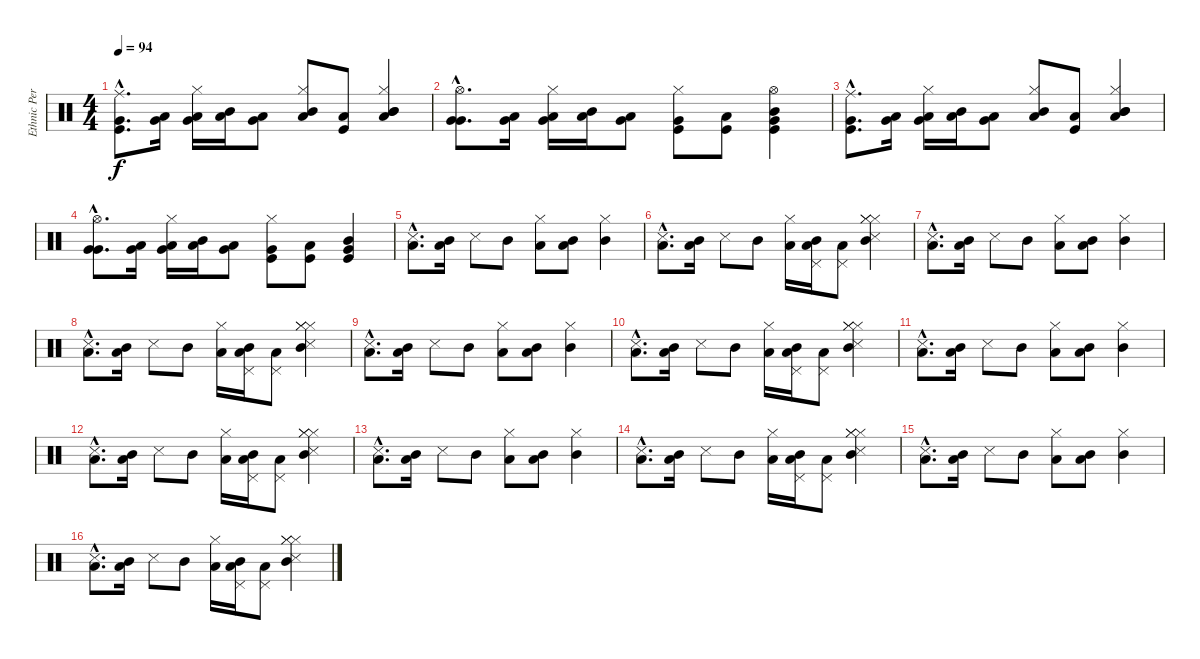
\track ("Ethnic Percussion" "Ethnic Per") {instrument percussion}
\staff {score}
\articulation defaults
\ts (4 4)
\tempo 94
\clef neutral
\ks c
("Ride (middle)"{hac} "Very Low Tom (hit)"{hac} "Kick (hit)"{hac}).8{d dy f} ("Low Floor Tom (hit)" "Very Low Tom (hit)").16 ("Very Low Tom (hit)" "Low Tom (hit)" "Hi-Hat (closed)").16 ("Mid Tom (hit)" "Low Tom (hit)").16 ("Very Low Tom (hit)" "Low Tom (hit)").8 ("Mid Tom (hit)" "Low Tom (hit)" "Hi-Hat (closed)").8 ("Low Tom (hit)" "Kick (hit)").8 ("Mid Tom (hit)" "Low Floor Tom (hit)" "Mid Tom (hit)" "Hi-Hat (closed)").4 |
("Hi-Hat (open)"{hac} "Very Low Tom (hit)"{hac} "Very Low Tom (hit)"{hac}).8{d} ("Low Tom (hit)" "Very Low Tom (hit)").16 ("Very Low Tom (hit)" "Low Tom (hit)" "Hi-Hat (closed)").16 ("Mid Tom (hit)" "Low Tom (hit)").16 ("Very Low Tom (hit)" "Low Tom (hit)").8 ("Kick (hit)" "Very Low Tom (hit)" "Hi-Hat (closed)").8 ("Low Tom (hit)" "Kick (hit)").8 ("Very Low Tom (hit)" "Kick (hit)" "Hi-Hat (open)" "Mid Tom (hit)").4 |
("Ride (middle)"{hac} "Very Low Tom (hit)"{hac} "Kick (hit)"{hac}).8{d} ("Low Floor Tom (hit)" "Very Low Tom (hit)").16 ("Very Low Tom (hit)" "Low Tom (hit)" "Hi-Hat (closed)").16 ("Mid Tom (hit)" "Low Tom (hit)").16 ("Very Low Tom (hit)" "Low Tom (hit)").8 ("Mid Tom (hit)" "Low Tom (hit)" "Hi-Hat (closed)").8 ("Low Tom (hit)" "Kick (hit)").8 ("Mid Tom (hit)" "Low Floor Tom (hit)" "Mid Tom (hit)" "Hi-Hat (closed)").4 |
("Hi-Hat (open)"{hac} "Very Low Tom (hit)"{hac} "Very Low Tom (hit)"{hac}).8{d} ("Low Tom (hit)" "Very Low Tom (hit)").16 ("Very Low Tom (hit)" "Low Tom (hit)" "Hi-Hat (closed)").16 ("Mid Tom (hit)" "Low Tom (hit)").16 ("Very Low Tom (hit)" "Low Tom (hit)").8 ("Kick (hit)" "Very Low Tom (hit)" "Hi-Hat (closed)").8 ("Low Tom (hit)" "Kick (hit)").8 ("Very Low Tom (hit)" "Kick (hit)" "Mid Tom (hit)").4 |
("Low Tom (hit)"{hac} "Snare (side stick) 3"{hac}).8{d} ("Low Tom (hit)" "Mid Tom (hit)").16 "Snare (side stick) 3".8 "Mid Tom (hit)".8 ("Low Tom (hit)" "Hi-Hat (closed)").8 ("Low Tom (hit)" "Mid Tom (hit)").8 ("Mid Tom (hit)" "Hi-Hat (closed)").4 |
("Low Tom (hit)"{hac} "Snare (side stick) 3"{hac}).8{d} ("Low Tom (hit)" "Mid Tom (hit)").16 "Snare (side stick) 3".8 "Mid Tom (hit)".8 ("Low Tom (hit)" "Hi-Hat (closed)").16 ("Low Tom (hit)" "Pedal Hi-Hat (hit)" "Mid Tom (hit)").16 ("Low Tom (hit)" "Pedal Hi-Hat (hit)").8 ("Snare (side stick) 3" "Mid Tom (hit)" "Hi-Hat (closed)" "Hi-Hat (closed)" "Hi-Hat (closed)").4 |
("Low Tom (hit)"{hac} "Snare (side stick) 3"{hac}).8{d} ("Low Tom (hit)" "Mid Tom (hit)").16 "Snare (side stick) 3".8 "Mid Tom (hit)".8 ("Low Tom (hit)" "Hi-Hat (closed)").8 ("Low Tom (hit)" "Mid Tom (hit)").8 ("Mid Tom (hit)" "Hi-Hat (closed)").4 |
("Low Tom (hit)"{hac} "Snare (side stick) 3"{hac}).8{d} ("Low Tom (hit)" "Mid Tom (hit)").16 "Snare (side stick) 3".8 "Mid Tom (hit)".8 ("Low Tom (hit)" "Hi-Hat (closed)").16 ("Low Tom (hit)" "Pedal Hi-Hat (hit)" "Mid Tom (hit)").16 ("Low Tom (hit)" "Pedal Hi-Hat (hit)").8 ("Snare (side stick) 3" "Mid Tom (hit)" "Hi-Hat (closed)" "Hi-Hat (closed)" "Hi-Hat (closed)").4 |
("Low Tom (hit)"{hac} "Snare (side stick) 3"{hac}).8{d} ("Low Tom (hit)" "Mid Tom (hit)").16 "Snare (side stick) 3".8 "Mid Tom (hit)".8 ("Low Tom (hit)" "Hi-Hat (closed)").8 ("Low Tom (hit)" "Mid Tom (hit)").8 ("Mid Tom (hit)" "Hi-Hat (closed)").4 |
("Low Tom (hit)"{hac} "Snare (side stick) 3"{hac}).8{d} ("Low Tom (hit)" "Mid Tom (hit)").16 "Snare (side stick) 3".8 "Mid Tom (hit)".8 ("Low Tom (hit)" "Hi-Hat (closed)").16 ("Low Tom (hit)" "Pedal Hi-Hat (hit)" "Mid Tom (hit)").16 ("Low Tom (hit)" "Pedal Hi-Hat (hit)").8 ("Snare (side stick) 3" "Mid Tom (hit)" "Hi-Hat (closed)" "Hi-Hat (closed)" "Hi-Hat (closed)").4 |
("Low Tom (hit)"{hac} "Snare (side stick) 3"{hac}).8{d} ("Low Tom (hit)" "Mid Tom (hit)").16 "Snare (side stick) 3".8 "Mid Tom (hit)".8 ("Low Tom (hit)" "Hi-Hat (closed)").8 ("Low Tom (hit)" "Mid Tom (hit)").8 ("Mid Tom (hit)" "Hi-Hat (closed)").4 |
("Low Tom (hit)"{hac} "Snare (side stick) 3"{hac}).8{d} ("Low Tom (hit)" "Mid Tom (hit)").16 "Snare (side stick) 3".8 "Mid Tom (hit)".8 ("Low Tom (hit)" "Hi-Hat (closed)").16 ("Low Tom (hit)" "Pedal Hi-Hat (hit)" "Mid Tom (hit)").16 ("Low Tom (hit)" "Pedal Hi-Hat (hit)").8 ("Snare (side stick) 3" "Mid Tom (hit)" "Hi-Hat (closed)" "Hi-Hat (closed)" "Hi-Hat (closed)").4 |
("Low Tom (hit)"{hac} "Snare (side stick) 3"{hac}).8{d} ("Low Tom (hit)" "Mid Tom (hit)").16 "Snare (side stick) 3".8 "Mid Tom (hit)".8 ("Low Tom (hit)" "Hi-Hat (closed)").8 ("Low Tom (hit)" "Mid Tom (hit)").8 ("Mid Tom (hit)" "Hi-Hat (closed)").4 |
("Low Tom (hit)"{hac} "Snare (side stick) 3"{hac}).8{d} ("Low Tom (hit)" "Mid Tom (hit)").16 "Snare (side stick) 3".8 "Mid Tom (hit)".8 ("Low Tom (hit)" "Hi-Hat (closed)").16 ("Low Tom (hit)" "Pedal Hi-Hat (hit)" "Mid Tom (hit)").16 ("Low Tom (hit)" "Pedal Hi-Hat (hit)").8 ("Snare (side stick) 3" "Mid Tom (hit)" "Hi-Hat (closed)" "Hi-Hat (closed)" "Hi-Hat (closed)").4 |
("Low Tom (hit)"{hac} "Snare (side stick) 3"{hac}).8{d} ("Low Tom (hit)" "Mid Tom (hit)").16 "Snare (side stick) 3".8 "Mid Tom (hit)".8 ("Low Tom (hit)" "Hi-Hat (closed)").8 ("Low Tom (hit)" "Mid Tom (hit)").8 ("Mid Tom (hit)" "Hi-Hat (closed)").4 |
("Low Tom (hit)"{hac} "Snare (side stick) 3"{hac}).8{d} ("Low Tom (hit)" "Mid Tom (hit)").16 "Snare (side stick) 3".8 "Mid Tom (hit)".8 ("Low Tom (hit)" "Hi-Hat (closed)").16 ("Low Tom (hit)" "Pedal Hi-Hat (hit)" "Mid Tom (hit)").16 ("Low Tom (hit)" "Pedal Hi-Hat (hit)").8 ("Snare (side stick) 3" "Mid Tom (hit)" "Hi-Hat (closed)" "Hi-Hat (closed)" "Hi-Hat (closed)").4
